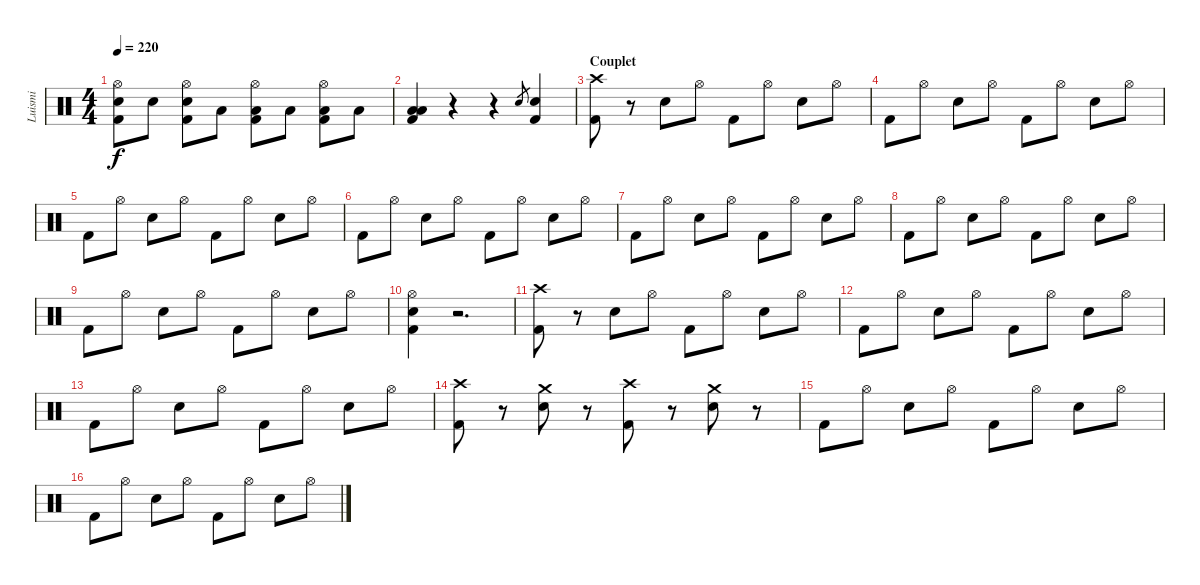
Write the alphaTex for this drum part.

\track ("Luismi" "Luismi") {instrument percussion}
\staff {score}
\articulation defaults
\ts (4 4)
\tempo 220
\clef neutral
\ks c
("Hi-Hat (open)" "Snare (hit) 2" "Kick (hit) 2").8{dy f} "Snare (hit) 2".8 ("Hi-Hat (open)" "Snare (hit) 2" "Kick (hit) 2").8 "Low Tom (hit)".8 ("Hi-Hat (open)" "Low Tom (hit)" "Kick (hit) 2").8 "Low Tom (hit)".8 ("Hi-Hat (open)" "Low Floor Tom (hit)" "Kick (hit) 2").8 "Low Floor Tom (hit)".8 |
("Low Tom (hit)" "Low Floor Tom (hit)" "Kick (hit) 2").4 r.4 r.4 "Snare (hit) 2".8{gr} ("Snare (hit) 2" "Kick (hit) 2").4 |
\section ("" "Couplet")
("Crash high (hit)" "Kick (hit) 2").8 r.8 "Snare (hit) 2".8 "Hi-Hat (open)".8 "Kick (hit) 2".8 "Hi-Hat (open)".8 "Snare (hit) 2".8 "Hi-Hat (open)".8 |
"Kick (hit) 2".8 "Hi-Hat (open)".8 "Snare (hit) 2".8 "Hi-Hat (open)".8 "Kick (hit) 2".8 "Hi-Hat (open)".8 "Snare (hit) 2".8 "Hi-Hat (open)".8 |
"Kick (hit) 2".8 "Hi-Hat (open)".8 "Snare (hit) 2".8 "Hi-Hat (open)".8 "Kick (hit) 2".8 "Hi-Hat (open)".8 "Snare (hit) 2".8 "Hi-Hat (open)".8 |
"Kick (hit) 2".8 "Hi-Hat (open)".8 "Snare (hit) 2".8 "Hi-Hat (open)".8 "Kick (hit) 2".8 "Hi-Hat (open)".8 "Snare (hit) 2".8 "Hi-Hat (open)".8 |
"Kick (hit) 2".8 "Hi-Hat (open)".8 "Snare (hit) 2".8 "Hi-Hat (open)".8 "Kick (hit) 2".8 "Hi-Hat (open)".8 "Snare (hit) 2".8 "Hi-Hat (open)".8 |
"Kick (hit) 2".8 "Hi-Hat (open)".8 "Snare (hit) 2".8 "Hi-Hat (open)".8 "Kick (hit) 2".8 "Hi-Hat (open)".8 "Snare (hit) 2".8 "Hi-Hat (open)".8 |
"Kick (hit) 2".8 "Hi-Hat (open)".8 "Snare (hit) 2".8 "Hi-Hat (open)".8 "Kick (hit) 2".8 "Hi-Hat (open)".8 "Snare (hit) 2".8 "Hi-Hat (open)".8 |
("Hi-Hat (open)" "Snare (hit) 2" "Kick (hit) 2").4 r.2{d} |
("Crash high (hit)" "Kick (hit) 2").8 r.8 "Snare (hit) 2".8 "Hi-Hat (open)".8 "Kick (hit) 2".8 "Hi-Hat (open)".8 "Snare (hit) 2".8 "Hi-Hat (open)".8 |
"Kick (hit) 2".8 "Hi-Hat (open)".8 "Snare (hit) 2".8 "Hi-Hat (open)".8 "Kick (hit) 2".8 "Hi-Hat (open)".8 "Snare (hit) 2".8 "Hi-Hat (open)".8 |
"Kick (hit) 2".8 "Hi-Hat (open)".8 "Snare (hit) 2".8 "Hi-Hat (open)".8 "Kick (hit) 2".8 "Hi-Hat (open)".8 "Snare (hit) 2".8 "Hi-Hat (open)".8 |
("Crash high (hit)" "Kick (hit) 2").8 r.8 ("Crash medium (hit)" "Snare (hit) 2").8 r.8 ("Crash high (hit)" "Kick (hit) 2").8 r.8 ("Crash medium (hit)" "Snare (hit) 2").8 r.8 |
"Kick (hit) 2".8 "Hi-Hat (open)".8 "Snare (hit) 2".8 "Hi-Hat (open)".8 "Kick (hit) 2".8 "Hi-Hat (open)".8 "Snare (hit) 2".8 "Hi-Hat (open)".8 |
"Kick (hit) 2".8 "Hi-Hat (open)".8 "Snare (hit) 2".8 "Hi-Hat (open)".8 "Kick (hit) 2".8 "Hi-Hat (open)".8 "Snare (hit) 2".8 "Hi-Hat (open)".8
